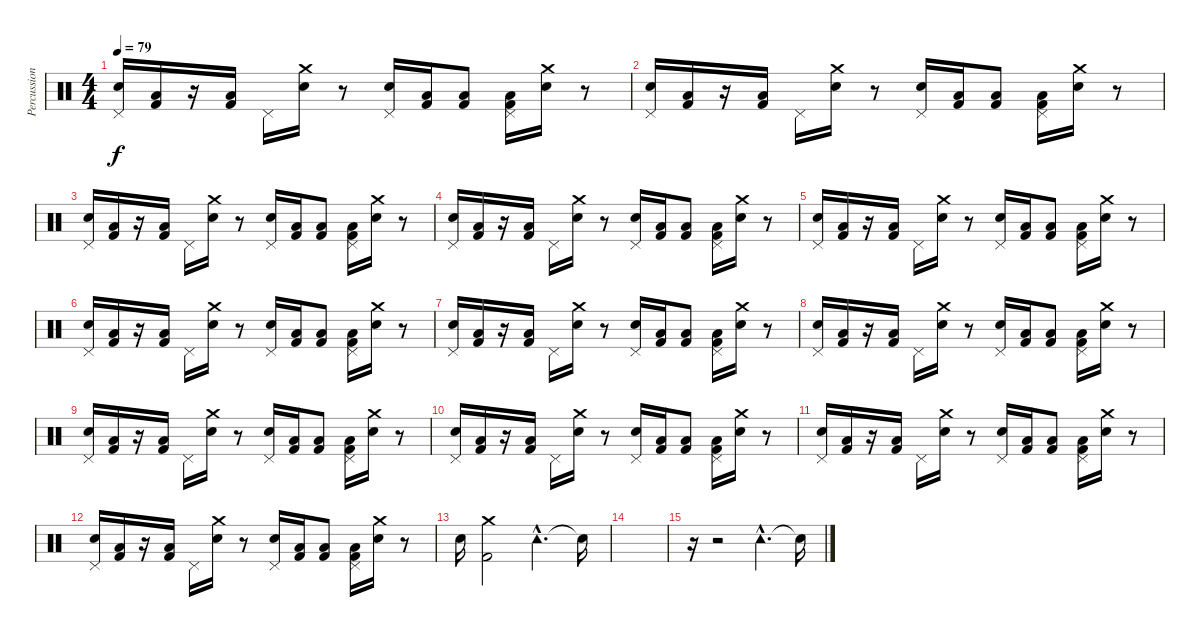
\track ("Percussion" "Percussion") {instrument percussion}
\staff {score}
\articulation defaults
\ts (4 4)
\tempo 79
\clef neutral
\ks c
("Pedal Hi-Hat (hit)" "Electric Snare (hit)").16{dy f} ("Low Floor Tom (hit)" "Kick (hit) 2").16 r.16 ("Low Floor Tom (hit)" "Kick (hit) 2").16 "Pedal Hi-Hat (hit)".16 ("Crash medium (hit)" "Electric Snare (hit)").16 r.8 ("Pedal Hi-Hat (hit)" "Electric Snare (hit)").16 ("Low Floor Tom (hit)" "Kick (hit) 2").16 ("Low Floor Tom (hit)" "Kick (hit) 2").8 ("Pedal Hi-Hat (hit)" "Low Floor Tom (hit)" "Kick (hit) 2").16 ("Crash medium (hit)" "Electric Snare (hit)").16 r.8 |
("Pedal Hi-Hat (hit)" "Electric Snare (hit)").16 ("Low Floor Tom (hit)" "Kick (hit) 2").16 r.16 ("Low Floor Tom (hit)" "Kick (hit) 2").16 "Pedal Hi-Hat (hit)".16 ("Crash medium (hit)" "Electric Snare (hit)").16 r.8 ("Pedal Hi-Hat (hit)" "Electric Snare (hit)").16 ("Low Floor Tom (hit)" "Kick (hit) 2").16 ("Low Floor Tom (hit)" "Kick (hit) 2").8 ("Pedal Hi-Hat (hit)" "Low Floor Tom (hit)" "Kick (hit) 2").16 ("Crash medium (hit)" "Electric Snare (hit)").16 r.8 |
("Pedal Hi-Hat (hit)" "Electric Snare (hit)").16 ("Low Floor Tom (hit)" "Kick (hit) 2").16 r.16 ("Low Floor Tom (hit)" "Kick (hit) 2").16 "Pedal Hi-Hat (hit)".16 ("Crash medium (hit)" "Electric Snare (hit)").16 r.8 ("Pedal Hi-Hat (hit)" "Electric Snare (hit)").16 ("Low Floor Tom (hit)" "Kick (hit) 2").16 ("Low Floor Tom (hit)" "Kick (hit) 2").8 ("Pedal Hi-Hat (hit)" "Low Floor Tom (hit)" "Kick (hit) 2").16 ("Crash medium (hit)" "Electric Snare (hit)").16 r.8 |
("Pedal Hi-Hat (hit)" "Electric Snare (hit)").16 ("Low Floor Tom (hit)" "Kick (hit) 2").16 r.16 ("Low Floor Tom (hit)" "Kick (hit) 2").16 "Pedal Hi-Hat (hit)".16 ("Crash medium (hit)" "Electric Snare (hit)").16 r.8 ("Pedal Hi-Hat (hit)" "Electric Snare (hit)").16 ("Low Floor Tom (hit)" "Kick (hit) 2").16 ("Low Floor Tom (hit)" "Kick (hit) 2").8 ("Pedal Hi-Hat (hit)" "Low Floor Tom (hit)" "Kick (hit) 2").16 ("Crash medium (hit)" "Electric Snare (hit)").16 r.8 |
("Pedal Hi-Hat (hit)" "Electric Snare (hit)").16 ("Low Floor Tom (hit)" "Kick (hit) 2").16 r.16 ("Low Floor Tom (hit)" "Kick (hit) 2").16 "Pedal Hi-Hat (hit)".16 ("Crash medium (hit)" "Electric Snare (hit)").16 r.8 ("Pedal Hi-Hat (hit)" "Electric Snare (hit)").16 ("Low Floor Tom (hit)" "Kick (hit) 2").16 ("Low Floor Tom (hit)" "Kick (hit) 2").8 ("Pedal Hi-Hat (hit)" "Low Floor Tom (hit)" "Kick (hit) 2").16 ("Crash medium (hit)" "Electric Snare (hit)").16 r.8 |
("Pedal Hi-Hat (hit)" "Electric Snare (hit)").16 ("Low Floor Tom (hit)" "Kick (hit) 2").16 r.16 ("Low Floor Tom (hit)" "Kick (hit) 2").16 "Pedal Hi-Hat (hit)".16 ("Crash medium (hit)" "Electric Snare (hit)").16 r.8 ("Pedal Hi-Hat (hit)" "Electric Snare (hit)").16 ("Low Floor Tom (hit)" "Kick (hit) 2").16 ("Low Floor Tom (hit)" "Kick (hit) 2").8 ("Pedal Hi-Hat (hit)" "Low Floor Tom (hit)" "Kick (hit) 2").16 ("Crash medium (hit)" "Electric Snare (hit)").16 r.8 |
("Pedal Hi-Hat (hit)" "Electric Snare (hit)").16 ("Low Floor Tom (hit)" "Kick (hit) 2").16 r.16 ("Low Floor Tom (hit)" "Kick (hit) 2").16 "Pedal Hi-Hat (hit)".16 ("Crash medium (hit)" "Electric Snare (hit)").16 r.8 ("Pedal Hi-Hat (hit)" "Electric Snare (hit)").16 ("Low Floor Tom (hit)" "Kick (hit) 2").16 ("Low Floor Tom (hit)" "Kick (hit) 2").8 ("Pedal Hi-Hat (hit)" "Low Floor Tom (hit)" "Kick (hit) 2").16 ("Crash medium (hit)" "Electric Snare (hit)").16 r.8 |
("Pedal Hi-Hat (hit)" "Electric Snare (hit)").16 ("Low Floor Tom (hit)" "Kick (hit) 2").16 r.16 ("Low Floor Tom (hit)" "Kick (hit) 2").16 "Pedal Hi-Hat (hit)".16 ("Crash medium (hit)" "Electric Snare (hit)").16 r.8 ("Pedal Hi-Hat (hit)" "Electric Snare (hit)").16 ("Low Floor Tom (hit)" "Kick (hit) 2").16 ("Low Floor Tom (hit)" "Kick (hit) 2").8 ("Pedal Hi-Hat (hit)" "Low Floor Tom (hit)" "Kick (hit) 2").16 ("Crash medium (hit)" "Electric Snare (hit)").16 r.8 |
("Pedal Hi-Hat (hit)" "Electric Snare (hit)").16 ("Low Floor Tom (hit)" "Kick (hit) 2").16 r.16 ("Low Floor Tom (hit)" "Kick (hit) 2").16 "Pedal Hi-Hat (hit)".16 ("Crash medium (hit)" "Electric Snare (hit)").16 r.8 ("Pedal Hi-Hat (hit)" "Electric Snare (hit)").16 ("Low Floor Tom (hit)" "Kick (hit) 2").16 ("Low Floor Tom (hit)" "Kick (hit) 2").8 ("Pedal Hi-Hat (hit)" "Low Floor Tom (hit)" "Kick (hit) 2").16 ("Crash medium (hit)" "Electric Snare (hit)").16 r.8 |
("Pedal Hi-Hat (hit)" "Electric Snare (hit)").16 ("Low Floor Tom (hit)" "Kick (hit) 2").16 r.16 ("Low Floor Tom (hit)" "Kick (hit) 2").16 "Pedal Hi-Hat (hit)".16 ("Crash medium (hit)" "Electric Snare (hit)").16 r.8 ("Pedal Hi-Hat (hit)" "Electric Snare (hit)").16 ("Low Floor Tom (hit)" "Kick (hit) 2").16 ("Low Floor Tom (hit)" "Kick (hit) 2").8 ("Pedal Hi-Hat (hit)" "Low Floor Tom (hit)" "Kick (hit) 2").16 ("Crash medium (hit)" "Electric Snare (hit)").16 r.8 |
("Pedal Hi-Hat (hit)" "Electric Snare (hit)").16 ("Low Floor Tom (hit)" "Kick (hit) 2").16 r.16 ("Low Floor Tom (hit)" "Kick (hit) 2").16 "Pedal Hi-Hat (hit)".16 ("Crash medium (hit)" "Electric Snare (hit)").16 r.8 ("Pedal Hi-Hat (hit)" "Electric Snare (hit)").16 ("Low Floor Tom (hit)" "Kick (hit) 2").16 ("Low Floor Tom (hit)" "Kick (hit) 2").8 ("Pedal Hi-Hat (hit)" "Low Floor Tom (hit)" "Kick (hit) 2").16 ("Crash medium (hit)" "Electric Snare (hit)").16 r.8 |
("Pedal Hi-Hat (hit)" "Electric Snare (hit)").16 ("Low Floor Tom (hit)" "Kick (hit) 2").16 r.16 ("Low Floor Tom (hit)" "Kick (hit) 2").16 "Pedal Hi-Hat (hit)".16 ("Crash medium (hit)" "Electric Snare (hit)").16 r.8 ("Pedal Hi-Hat (hit)" "Electric Snare (hit)").16 ("Low Floor Tom (hit)" "Kick (hit) 2").16 ("Low Floor Tom (hit)" "Kick (hit) 2").8 ("Pedal Hi-Hat (hit)" "Low Floor Tom (hit)" "Kick (hit) 2").16 ("Crash medium (hit)" "Electric Snare (hit)").16 r.8 |
"Electric Snare (hit)".16 ("Crash medium (hit)" "Kick (hit) 2").2 "Tambourine (hit)"{hac}.4{d} "Snare (hit)"{t}.16 |
|
r.16 r.2 "Tambourine (hit)"{hac}.4{d} "Snare (hit)"{t}.16
